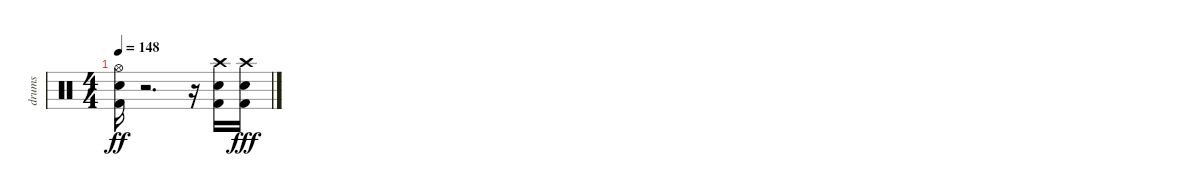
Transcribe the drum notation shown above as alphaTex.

\track ("drums" "drums") {instrument percussion}
\staff {score}
\articulation defaults
\ts (4 4)
\tempo 148
\clef neutral
\ks c
("Snare (hit) 2" "Kick (hit) 2" "Hi-Hat (open)").16{dy ff} r.2{d} r.16 ("Kick (hit) 2" "Snare (hit) 2" "Crash high (hit)").16 ("Kick (hit) 2" "Crash high (hit)" "Snare (hit) 2").16{dy fff}
